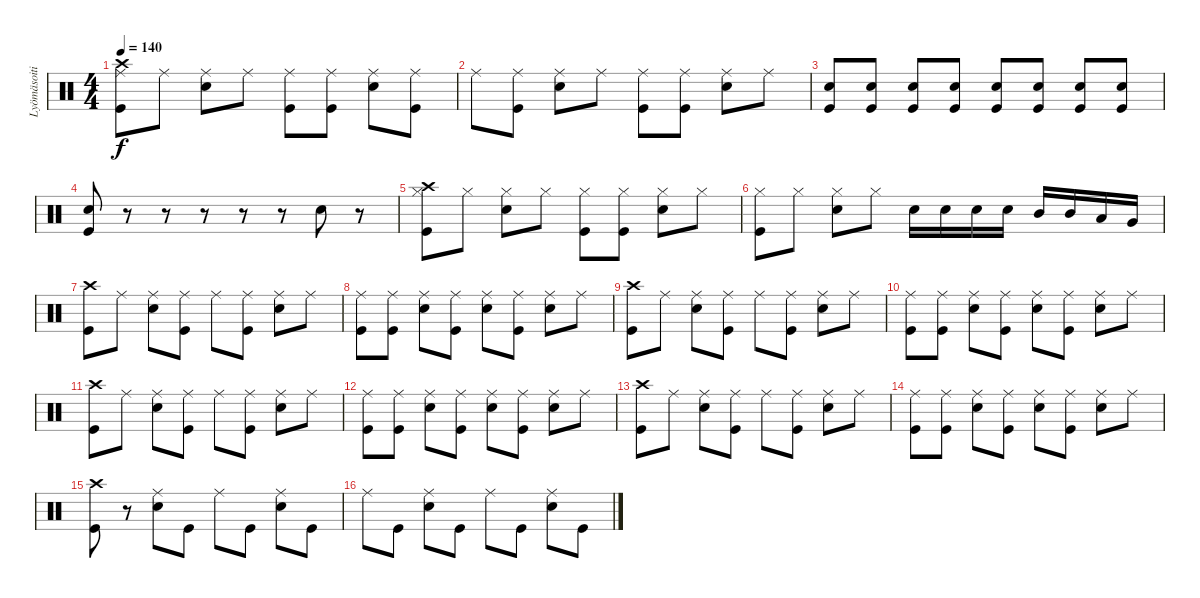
\track ("Lyömäsoitin" "Lyömäsoiti") {instrument percussion}
\staff {score}
\articulation defaults
\ts (4 4)
\tempo 140
\clef neutral
\ks c
("Crash high (hit)" "Ride (middle)" "Kick (hit)").8{dy f} "Ride (middle)".8 ("Ride (middle)" "Snare (hit) 2").8 "Ride (middle)".8 ("Ride (middle)" "Kick (hit)").8 ("Ride (middle)" "Kick (hit)").8 ("Ride (middle)" "Snare (hit) 2").8 ("Ride (middle)" "Kick (hit)").8 |
"Ride (middle)".8 ("Ride (middle)" "Kick (hit)").8 ("Ride (middle)" "Snare (hit) 2").8 "Ride (middle)".8 ("Ride (middle)" "Kick (hit)").8 ("Ride (middle)" "Kick (hit)").8 ("Ride (middle)" "Snare (hit) 2").8 "Ride (middle)".8 |
("Snare (hit) 2" "Kick (hit)").8 ("Snare (hit) 2" "Kick (hit)").8 ("Snare (hit) 2" "Kick (hit)").8 ("Snare (hit) 2" "Kick (hit)").8 ("Snare (hit) 2" "Kick (hit)").8 ("Snare (hit) 2" "Kick (hit)").8 ("Snare (hit) 2" "Kick (hit)").8 ("Snare (hit) 2" "Kick (hit)").8 |
("Snare (hit) 2" "Kick (hit)").8 r.8 r.8 r.8 r.8 r.8 "Snare (hit) 2".8 r.8 |
("Crash high (hit)" "Hi-Hat (closed)" "Kick (hit)").8 "Hi-Hat (closed)".8 ("Hi-Hat (closed)" "Snare (hit) 2").8 "Hi-Hat (closed)".8 ("Hi-Hat (closed)" "Kick (hit)").8 ("Hi-Hat (closed)" "Kick (hit)").8 ("Hi-Hat (closed)" "Snare (hit) 2").8 "Hi-Hat (closed)".8 |
("Hi-Hat (closed)" "Kick (hit)").8 "Hi-Hat (closed)".8 ("Hi-Hat (closed)" "Snare (hit) 2").8 "Hi-Hat (closed)".8 "Snare (hit) 2".16 "Snare (hit) 2".16 "Snare (hit) 2".16 "Snare (hit) 2".16 "Mid Tom (hit)".16 "Mid Tom (hit)".16 "Low Tom (hit)".16 "Very Low Tom (hit)".16 |
("Crash high (hit)" "Kick (hit)").8 "Ride (middle)".8 ("Ride (middle)" "Snare (hit) 2").8 ("Ride (middle)" "Kick (hit)").8 "Ride (middle)".8 ("Ride (middle)" "Kick (hit)").8 ("Ride (middle)" "Snare (hit) 2").8 "Ride (middle)".8 |
("Ride (middle)" "Kick (hit)").8 ("Ride (middle)" "Kick (hit)").8 ("Ride (middle)" "Snare (hit) 2").8 ("Ride (middle)" "Kick (hit)").8 ("Ride (middle)" "Snare (hit) 2").8 ("Ride (middle)" "Kick (hit)").8 ("Ride (middle)" "Snare (hit) 2").8 "Ride (middle)".8 |
("Crash high (hit)" "Kick (hit)").8 "Ride (middle)".8 ("Ride (middle)" "Snare (hit) 2").8 ("Ride (middle)" "Kick (hit)").8 "Ride (middle)".8 ("Ride (middle)" "Kick (hit)").8 ("Ride (middle)" "Snare (hit) 2").8 "Ride (middle)".8 |
("Ride (middle)" "Kick (hit)").8 ("Ride (middle)" "Kick (hit)").8 ("Ride (middle)" "Snare (hit) 2").8 ("Ride (middle)" "Kick (hit)").8 ("Ride (middle)" "Snare (hit) 2").8 ("Ride (middle)" "Kick (hit)").8 ("Ride (middle)" "Snare (hit) 2").8 "Ride (middle)".8 |
("Crash high (hit)" "Kick (hit)").8 "Ride (middle)".8 ("Ride (middle)" "Snare (hit) 2").8 ("Ride (middle)" "Kick (hit)").8 "Ride (middle)".8 ("Ride (middle)" "Kick (hit)").8 ("Ride (middle)" "Snare (hit) 2").8 "Ride (middle)".8 |
("Ride (middle)" "Kick (hit)").8 ("Ride (middle)" "Kick (hit)").8 ("Ride (middle)" "Snare (hit) 2").8 ("Ride (middle)" "Kick (hit)").8 ("Ride (middle)" "Snare (hit) 2").8 ("Ride (middle)" "Kick (hit)").8 ("Ride (middle)" "Snare (hit) 2").8 "Ride (middle)".8 |
("Crash high (hit)" "Kick (hit)").8 "Ride (middle)".8 ("Ride (middle)" "Snare (hit) 2").8 ("Ride (middle)" "Kick (hit)").8 "Ride (middle)".8 ("Ride (middle)" "Kick (hit)").8 ("Ride (middle)" "Snare (hit) 2").8 "Ride (middle)".8 |
("Ride (middle)" "Kick (hit)").8 ("Ride (middle)" "Kick (hit)").8 ("Ride (middle)" "Snare (hit) 2").8 ("Ride (middle)" "Kick (hit)").8 ("Ride (middle)" "Snare (hit) 2").8 ("Ride (middle)" "Kick (hit)").8 ("Ride (middle)" "Snare (hit) 2").8 "Ride (middle)".8 |
("Crash high (hit)" "Kick (hit)").8 r.8 ("Ride (middle)" "Snare (hit) 2").8 "Kick (hit)".8 "Ride (middle)".8 "Kick (hit)".8 ("Ride (middle)" "Snare (hit) 2").8 "Kick (hit)".8 |
"Ride (middle)".8 "Kick (hit)".8 ("Ride (middle)" "Snare (hit) 2").8 "Kick (hit)".8 "Ride (middle)".8 "Kick (hit)".8 ("Ride (middle)" "Snare (hit) 2").8 "Kick (hit)".8
